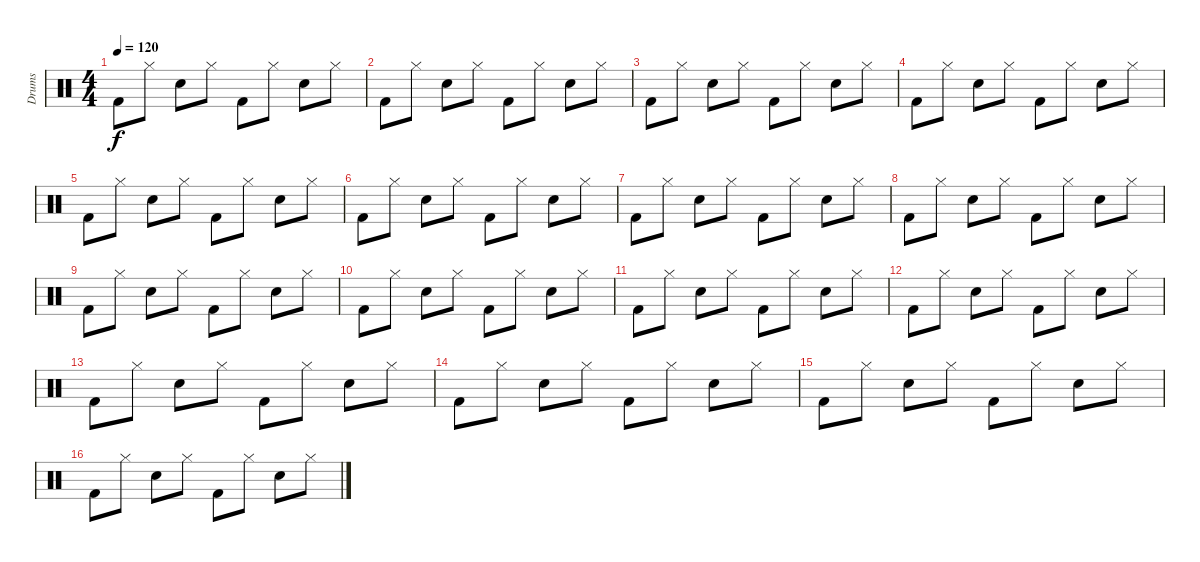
\track ("Drums" "Drums") {instrument percussion}
\staff {score}
\articulation defaults
\ts (4 4)
\tempo 120
\clef neutral
\ks c "Kick (hit) 2".8{dy f} "Hi-Hat (closed)".8 "Snare (hit) 2".8 "Hi-Hat (closed)".8 "Kick (hit) 2".8 "Hi-Hat (closed)".8 "Snare (hit) 2".8 "Hi-Hat (closed)".8
|
"Kick (hit) 2".8 "Hi-Hat (closed)".8 "Snare (hit) 2".8 "Hi-Hat (closed)".8 "Kick (hit) 2".8 "Hi-Hat (closed)".8 "Snare (hit) 2".8 "Hi-Hat (closed)".8 |
"Kick (hit) 2".8 "Hi-Hat (closed)".8 "Snare (hit) 2".8 "Hi-Hat (closed)".8 "Kick (hit) 2".8 "Hi-Hat (closed)".8 "Snare (hit) 2".8 "Hi-Hat (closed)".8 |
"Kick (hit) 2".8 "Hi-Hat (closed)".8 "Snare (hit) 2".8 "Hi-Hat (closed)".8 "Kick (hit) 2".8 "Hi-Hat (closed)".8 "Snare (hit) 2".8 "Hi-Hat (closed)".8 |
"Kick (hit) 2".8 "Hi-Hat (closed)".8 "Snare (hit) 2".8 "Hi-Hat (closed)".8 "Kick (hit) 2".8 "Hi-Hat (closed)".8 "Snare (hit) 2".8 "Hi-Hat (closed)".8 |
"Kick (hit) 2".8 "Hi-Hat (closed)".8 "Snare (hit) 2".8 "Hi-Hat (closed)".8 "Kick (hit) 2".8 "Hi-Hat (closed)".8 "Snare (hit) 2".8 "Hi-Hat (closed)".8 |
"Kick (hit) 2".8 "Hi-Hat (closed)".8 "Snare (hit) 2".8 "Hi-Hat (closed)".8 "Kick (hit) 2".8 "Hi-Hat (closed)".8 "Snare (hit) 2".8 "Hi-Hat (closed)".8 |
"Kick (hit) 2".8 "Hi-Hat (closed)".8 "Snare (hit) 2".8 "Hi-Hat (closed)".8 "Kick (hit) 2".8 "Hi-Hat (closed)".8 "Snare (hit) 2".8 "Hi-Hat (closed)".8 |
"Kick (hit) 2".8 "Hi-Hat (closed)".8 "Snare (hit) 2".8 "Hi-Hat (closed)".8 "Kick (hit) 2".8 "Hi-Hat (closed)".8 "Snare (hit) 2".8 "Hi-Hat (closed)".8 |
"Kick (hit) 2".8 "Hi-Hat (closed)".8 "Snare (hit) 2".8 "Hi-Hat (closed)".8 "Kick (hit) 2".8 "Hi-Hat (closed)".8 "Snare (hit) 2".8 "Hi-Hat (closed)".8 |
"Kick (hit) 2".8 "Hi-Hat (closed)".8 "Snare (hit) 2".8 "Hi-Hat (closed)".8 "Kick (hit) 2".8 "Hi-Hat (closed)".8 "Snare (hit) 2".8 "Hi-Hat (closed)".8 |
"Kick (hit) 2".8 "Hi-Hat (closed)".8 "Snare (hit) 2".8 "Hi-Hat (closed)".8 "Kick (hit) 2".8 "Hi-Hat (closed)".8 "Snare (hit) 2".8 "Hi-Hat (closed)".8 |
"Kick (hit) 2".8 "Hi-Hat (closed)".8 "Snare (hit) 2".8 "Hi-Hat (closed)".8 "Kick (hit) 2".8 "Hi-Hat (closed)".8 "Snare (hit) 2".8 "Hi-Hat (closed)".8 |
"Kick (hit) 2".8 "Hi-Hat (closed)".8 "Snare (hit) 2".8 "Hi-Hat (closed)".8 "Kick (hit) 2".8 "Hi-Hat (closed)".8 "Snare (hit) 2".8 "Hi-Hat (closed)".8 |
"Kick (hit) 2".8 "Hi-Hat (closed)".8 "Snare (hit) 2".8 "Hi-Hat (closed)".8 "Kick (hit) 2".8 "Hi-Hat (closed)".8 "Snare (hit) 2".8 "Hi-Hat (closed)".8 |
"Kick (hit) 2".8 "Hi-Hat (closed)".8 "Snare (hit) 2".8 "Hi-Hat (closed)".8 "Kick (hit) 2".8 "Hi-Hat (closed)".8 "Snare (hit) 2".8 "Hi-Hat (closed)".8
